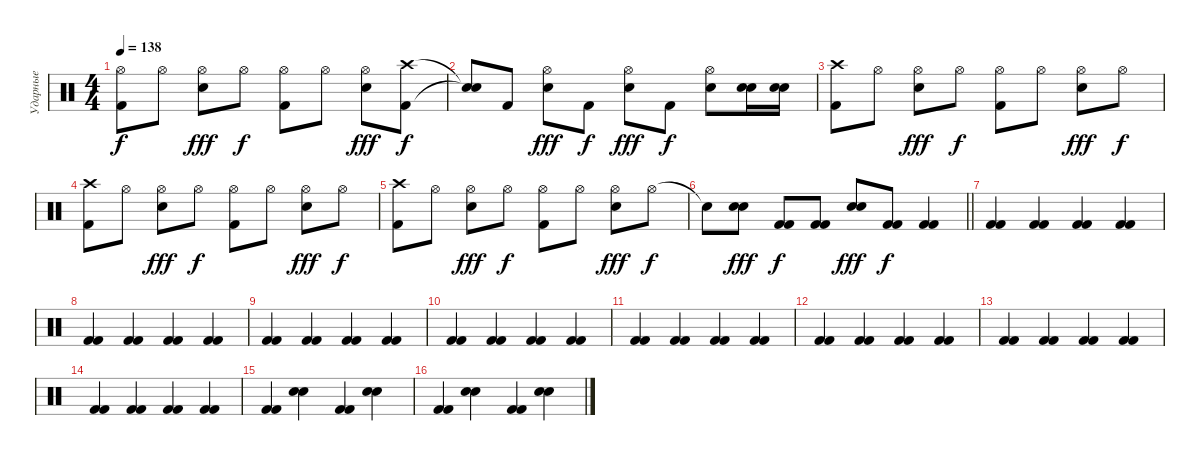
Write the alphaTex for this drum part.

\track ("Ударные" "Ударные") {instrument percussion}
\staff {score}
\articulation defaults
\ts (4 4)
\tempo 138
\clef neutral
\ks c
("Hi-Hat (open)" "Kick (hit) 2").8{dy f} "Hi-Hat (open)".8 ("Hi-Hat (open)" "Electric Snare (hit)").8{dy fff} "Hi-Hat (open)".8{dy f} ("Hi-Hat (open)" "Kick (hit) 2").8 "Hi-Hat (open)".8 ("Hi-Hat (open)" "Electric Snare (hit)").8{dy fff} ("Crash high (hit)" "Kick (hit) 2").8{dy f} |
("Snare (hit)"{t} "Snare (hit)"{t}).8 "Kick (hit) 2".8 ("Hi-Hat (open)" "Electric Snare (hit)").8{dy fff} "Kick (hit) 2".8{dy f} ("Hi-Hat (open)" "Electric Snare (hit)").8{dy fff} "Kick (hit) 2".8{dy f} ("Hi-Hat (open)" "Electric Snare (hit)").8 ("Electric Snare (hit)" "Electric Snare (hit)").16 ("Electric Snare (hit)" "Electric Snare (hit)").16 |
("Crash high (hit)" "Kick (hit) 2").8 "Hi-Hat (open)".8 ("Hi-Hat (open)" "Electric Snare (hit)").8{dy fff} "Hi-Hat (open)".8{dy f} ("Hi-Hat (open)" "Kick (hit) 2").8 "Hi-Hat (open)".8 ("Hi-Hat (open)" "Electric Snare (hit)").8{dy fff} "Hi-Hat (open)".8{dy f} |
("Crash high (hit)" "Kick (hit) 2").8 "Hi-Hat (open)".8 ("Hi-Hat (open)" "Electric Snare (hit)").8{dy fff} "Hi-Hat (open)".8{dy f} ("Hi-Hat (open)" "Kick (hit) 2").8 "Hi-Hat (open)".8 ("Hi-Hat (open)" "Electric Snare (hit)").8{dy fff} "Hi-Hat (open)".8{dy f} |
("Crash high (hit)" "Kick (hit) 2").8 "Hi-Hat (open)".8 ("Hi-Hat (open)" "Electric Snare (hit)").8{dy fff} "Hi-Hat (open)".8{dy f} ("Hi-Hat (open)" "Kick (hit) 2").8 "Hi-Hat (open)".8 ("Hi-Hat (open)" "Electric Snare (hit)").8{dy fff} "Hi-Hat (open)".8{dy f} |
\barLineRight lightlight "Snare (hit)"{t}.8
("Electric Snare (hit)" "Electric Snare (hit)").8{dy fff} ("Kick (hit) 2" "Kick (hit) 2").8{dy f} ("Kick (hit) 2" "Kick (hit) 2").8 ("Electric Snare (hit)" "Electric Snare (hit)").8{dy fff} ("Kick (hit) 2" "Kick (hit) 2").8{dy f} ("Kick (hit) 2" "Kick (hit) 2").4 |
("Kick (hit) 2" "Kick (hit) 2").4 ("Kick (hit) 2" "Kick (hit) 2").4 ("Kick (hit) 2" "Kick (hit) 2").4 ("Kick (hit) 2" "Kick (hit) 2").4 |
("Kick (hit) 2" "Kick (hit) 2").4 ("Kick (hit) 2" "Kick (hit) 2").4 ("Kick (hit) 2" "Kick (hit) 2").4 ("Kick (hit) 2" "Kick (hit) 2").4 |
("Kick (hit) 2" "Kick (hit) 2").4 ("Kick (hit) 2" "Kick (hit) 2").4 ("Kick (hit) 2" "Kick (hit) 2").4 ("Kick (hit) 2" "Kick (hit) 2").4 |
("Kick (hit) 2" "Kick (hit) 2").4 ("Kick (hit) 2" "Kick (hit) 2").4 ("Kick (hit) 2" "Kick (hit) 2").4 ("Kick (hit) 2" "Kick (hit) 2").4 |
("Kick (hit) 2" "Kick (hit) 2").4 ("Kick (hit) 2" "Kick (hit) 2").4 ("Kick (hit) 2" "Kick (hit) 2").4 ("Kick (hit) 2" "Kick (hit) 2").4 |
("Kick (hit) 2" "Kick (hit) 2").4 ("Kick (hit) 2" "Kick (hit) 2").4 ("Kick (hit) 2" "Kick (hit) 2").4 ("Kick (hit) 2" "Kick (hit) 2").4 |
("Kick (hit) 2" "Kick (hit) 2").4 ("Kick (hit) 2" "Kick (hit) 2").4 ("Kick (hit) 2" "Kick (hit) 2").4 ("Kick (hit) 2" "Kick (hit) 2").4 |
("Kick (hit) 2" "Kick (hit) 2").4 ("Kick (hit) 2" "Kick (hit) 2").4 ("Kick (hit) 2" "Kick (hit) 2").4 ("Kick (hit) 2" "Kick (hit) 2").4 |
("Kick (hit) 2" "Kick (hit) 2").4 ("Electric Snare (hit)" "Electric Snare (hit)").4 ("Kick (hit) 2" "Kick (hit) 2").4 ("Electric Snare (hit)" "Electric Snare (hit)").4 |
("Kick (hit) 2" "Kick (hit) 2").4 ("Electric Snare (hit)" "Electric Snare (hit)").4 ("Kick (hit) 2" "Kick (hit) 2").4 ("Electric Snare (hit)" "Electric Snare (hit)").4
